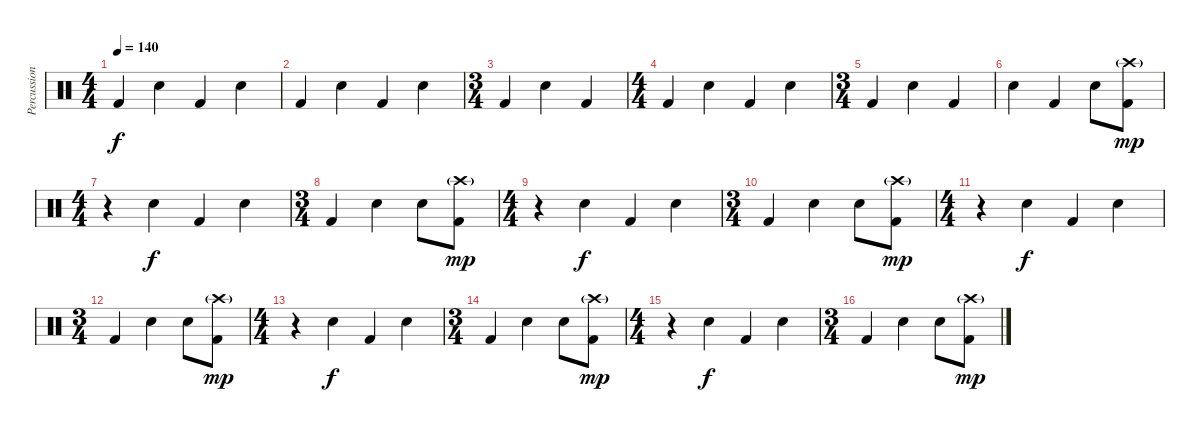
\track ("Percussion" "Percussion") {instrument percussion}
\staff {score}
\articulation defaults
\ts (4 4)
\tempo 140
\clef neutral
\ks c "Kick (hit) 2".4{dy f} "Snare (hit) 2".4 "Kick (hit) 2".4 "Snare (hit) 2".4
|
"Kick (hit) 2".4 "Snare (hit) 2".4 "Kick (hit) 2".4 "Snare (hit) 2".4 |
\ts (3 4)
"Kick (hit) 2".4 "Snare (hit) 2".4 "Kick (hit) 2".4 |
\ts (4 4)
"Kick (hit) 2".4 "Snare (hit) 2".4 "Kick (hit) 2".4 "Snare (hit) 2".4 |
\ts (3 4)
"Kick (hit) 2".4 "Snare (hit) 2".4 "Kick (hit) 2".4 |
"Snare (hit) 2".4 "Kick (hit) 2".4 "Snare (hit) 2".8 ("Crash high (hit)"{g} "Kick (hit) 2").8{dy mp} |
\ts (4 4)
r.4 "Snare (hit) 2".4{dy f} "Kick (hit) 2".4 "Snare (hit) 2".4 |
\ts (3 4)
"Kick (hit) 2".4 "Snare (hit) 2".4 "Snare (hit) 2".8 ("Crash high (hit)"{g} "Kick (hit) 2").8{dy mp} |
\ts (4 4)
r.4 "Snare (hit) 2".4{dy f} "Kick (hit) 2".4 "Snare (hit) 2".4 |
\ts (3 4)
"Kick (hit) 2".4 "Snare (hit) 2".4 "Snare (hit) 2".8 ("Crash high (hit)"{g} "Kick (hit) 2").8{dy mp} |
\ts (4 4)
r.4 "Snare (hit) 2".4{dy f} "Kick (hit) 2".4 "Snare (hit) 2".4 |
\ts (3 4)
"Kick (hit) 2".4 "Snare (hit) 2".4 "Snare (hit) 2".8 ("Crash high (hit)"{g} "Kick (hit) 2").8{dy mp} |
\ts (4 4)
r.4 "Snare (hit) 2".4{dy f} "Kick (hit) 2".4 "Snare (hit) 2".4 |
\ts (3 4)
"Kick (hit) 2".4 "Snare (hit) 2".4 "Snare (hit) 2".8 ("Crash high (hit)"{g} "Kick (hit) 2").8{dy mp} |
\ts (4 4)
r.4 "Snare (hit) 2".4{dy f} "Kick (hit) 2".4 "Snare (hit) 2".4 |
\ts (3 4)
"Kick (hit) 2".4 "Snare (hit) 2".4 "Snare (hit) 2".8 ("Crash high (hit)"{g} "Kick (hit) 2").8{dy mp}
